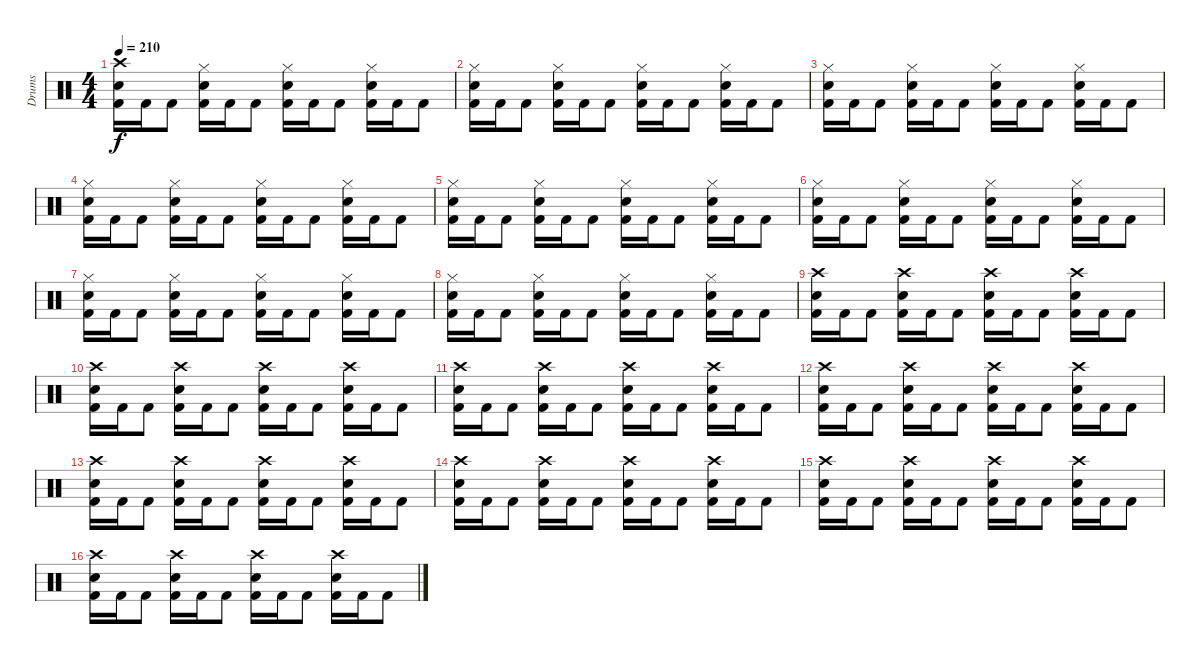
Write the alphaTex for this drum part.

\track ("Drums" "Drums") {instrument percussion}
\staff {score}
\articulation defaults
\ts (4 4)
\tempo 210
\clef neutral
\ks c
("Crash high (hit)" "Electric Snare (hit)" "Kick (hit) 2").16{dy f} "Kick (hit) 2".16 "Kick (hit) 2".8 ("Hi-Hat (closed)" "Electric Snare (hit)" "Kick (hit) 2").16 "Kick (hit) 2".16 "Kick (hit) 2".8 ("Hi-Hat (closed)" "Electric Snare (hit)" "Kick (hit) 2").16 "Kick (hit) 2".16 "Kick (hit) 2".8 ("Hi-Hat (closed)" "Electric Snare (hit)" "Kick (hit) 2").16 "Kick (hit) 2".16 "Kick (hit) 2".8 |
("Hi-Hat (closed)" "Electric Snare (hit)" "Kick (hit) 2").16 "Kick (hit) 2".16 "Kick (hit) 2".8 ("Hi-Hat (closed)" "Electric Snare (hit)" "Kick (hit) 2").16 "Kick (hit) 2".16 "Kick (hit) 2".8 ("Hi-Hat (closed)" "Electric Snare (hit)" "Kick (hit) 2").16 "Kick (hit) 2".16 "Kick (hit) 2".8 ("Hi-Hat (closed)" "Electric Snare (hit)" "Kick (hit) 2").16 "Kick (hit) 2".16 "Kick (hit) 2".8 |
("Hi-Hat (closed)" "Electric Snare (hit)" "Kick (hit) 2").16 "Kick (hit) 2".16 "Kick (hit) 2".8 ("Hi-Hat (closed)" "Electric Snare (hit)" "Kick (hit) 2").16 "Kick (hit) 2".16 "Kick (hit) 2".8 ("Hi-Hat (closed)" "Electric Snare (hit)" "Kick (hit) 2").16 "Kick (hit) 2".16 "Kick (hit) 2".8 ("Hi-Hat (closed)" "Electric Snare (hit)" "Kick (hit) 2").16 "Kick (hit) 2".16 "Kick (hit) 2".8 |
("Hi-Hat (closed)" "Electric Snare (hit)" "Kick (hit) 2").16 "Kick (hit) 2".16 "Kick (hit) 2".8 ("Hi-Hat (closed)" "Electric Snare (hit)" "Kick (hit) 2").16 "Kick (hit) 2".16 "Kick (hit) 2".8 ("Hi-Hat (closed)" "Electric Snare (hit)" "Kick (hit) 2").16 "Kick (hit) 2".16 "Kick (hit) 2".8 ("Hi-Hat (closed)" "Electric Snare (hit)" "Kick (hit) 2").16 "Kick (hit) 2".16 "Kick (hit) 2".8 |
("Hi-Hat (closed)" "Electric Snare (hit)" "Kick (hit) 2").16 "Kick (hit) 2".16 "Kick (hit) 2".8 ("Hi-Hat (closed)" "Electric Snare (hit)" "Kick (hit) 2").16 "Kick (hit) 2".16 "Kick (hit) 2".8 ("Hi-Hat (closed)" "Electric Snare (hit)" "Kick (hit) 2").16 "Kick (hit) 2".16 "Kick (hit) 2".8 ("Hi-Hat (closed)" "Electric Snare (hit)" "Kick (hit) 2").16 "Kick (hit) 2".16 "Kick (hit) 2".8 |
("Hi-Hat (closed)" "Electric Snare (hit)" "Kick (hit) 2").16 "Kick (hit) 2".16 "Kick (hit) 2".8 ("Hi-Hat (closed)" "Electric Snare (hit)" "Kick (hit) 2").16 "Kick (hit) 2".16 "Kick (hit) 2".8 ("Hi-Hat (closed)" "Electric Snare (hit)" "Kick (hit) 2").16 "Kick (hit) 2".16 "Kick (hit) 2".8 ("Hi-Hat (closed)" "Electric Snare (hit)" "Kick (hit) 2").16 "Kick (hit) 2".16 "Kick (hit) 2".8 |
("Hi-Hat (closed)" "Electric Snare (hit)" "Kick (hit) 2").16 "Kick (hit) 2".16 "Kick (hit) 2".8 ("Hi-Hat (closed)" "Electric Snare (hit)" "Kick (hit) 2").16 "Kick (hit) 2".16 "Kick (hit) 2".8 ("Hi-Hat (closed)" "Electric Snare (hit)" "Kick (hit) 2").16 "Kick (hit) 2".16 "Kick (hit) 2".8 ("Hi-Hat (closed)" "Electric Snare (hit)" "Kick (hit) 2").16 "Kick (hit) 2".16 "Kick (hit) 2".8 |
("Hi-Hat (closed)" "Electric Snare (hit)" "Kick (hit) 2").16 "Kick (hit) 2".16 "Kick (hit) 2".8 ("Hi-Hat (closed)" "Electric Snare (hit)" "Kick (hit) 2").16 "Kick (hit) 2".16 "Kick (hit) 2".8 ("Hi-Hat (closed)" "Electric Snare (hit)" "Kick (hit) 2").16 "Kick (hit) 2".16 "Kick (hit) 2".8 ("Hi-Hat (closed)" "Electric Snare (hit)" "Kick (hit) 2").16 "Kick (hit) 2".16 "Kick (hit) 2".8 |
("Crash high (hit)" "Electric Snare (hit)" "Kick (hit) 2").16 "Kick (hit) 2".16 "Kick (hit) 2".8 ("Crash high (hit)" "Electric Snare (hit)" "Kick (hit) 2").16 "Kick (hit) 2".16 "Kick (hit) 2".8 ("Crash high (hit)" "Electric Snare (hit)" "Kick (hit) 2").16 "Kick (hit) 2".16 "Kick (hit) 2".8 ("Crash high (hit)" "Electric Snare (hit)" "Kick (hit) 2").16 "Kick (hit) 2".16 "Kick (hit) 2".8 |
("Crash high (hit)" "Electric Snare (hit)" "Kick (hit) 2").16 "Kick (hit) 2".16 "Kick (hit) 2".8 ("Crash high (hit)" "Electric Snare (hit)" "Kick (hit) 2").16 "Kick (hit) 2".16 "Kick (hit) 2".8 ("Crash high (hit)" "Electric Snare (hit)" "Kick (hit) 2").16 "Kick (hit) 2".16 "Kick (hit) 2".8 ("Crash high (hit)" "Electric Snare (hit)" "Kick (hit) 2").16 "Kick (hit) 2".16 "Kick (hit) 2".8 |
("Crash high (hit)" "Electric Snare (hit)" "Kick (hit) 2").16 "Kick (hit) 2".16 "Kick (hit) 2".8 ("Crash high (hit)" "Electric Snare (hit)" "Kick (hit) 2").16 "Kick (hit) 2".16 "Kick (hit) 2".8 ("Crash high (hit)" "Electric Snare (hit)" "Kick (hit) 2").16 "Kick (hit) 2".16 "Kick (hit) 2".8 ("Crash high (hit)" "Electric Snare (hit)" "Kick (hit) 2").16 "Kick (hit) 2".16 "Kick (hit) 2".8 |
("Crash high (hit)" "Electric Snare (hit)" "Kick (hit) 2").16 "Kick (hit) 2".16 "Kick (hit) 2".8 ("Crash high (hit)" "Electric Snare (hit)" "Kick (hit) 2").16 "Kick (hit) 2".16 "Kick (hit) 2".8 ("Crash high (hit)" "Electric Snare (hit)" "Kick (hit) 2").16 "Kick (hit) 2".16 "Kick (hit) 2".8 ("Crash high (hit)" "Electric Snare (hit)" "Kick (hit) 2").16 "Kick (hit) 2".16 "Kick (hit) 2".8 |
("Crash high (hit)" "Electric Snare (hit)" "Kick (hit) 2").16 "Kick (hit) 2".16 "Kick (hit) 2".8 ("Crash high (hit)" "Electric Snare (hit)" "Kick (hit) 2").16 "Kick (hit) 2".16 "Kick (hit) 2".8 ("Crash high (hit)" "Electric Snare (hit)" "Kick (hit) 2").16 "Kick (hit) 2".16 "Kick (hit) 2".8 ("Crash high (hit)" "Electric Snare (hit)" "Kick (hit) 2").16 "Kick (hit) 2".16 "Kick (hit) 2".8 |
("Crash high (hit)" "Electric Snare (hit)" "Kick (hit) 2").16 "Kick (hit) 2".16 "Kick (hit) 2".8 ("Crash high (hit)" "Electric Snare (hit)" "Kick (hit) 2").16 "Kick (hit) 2".16 "Kick (hit) 2".8 ("Crash high (hit)" "Electric Snare (hit)" "Kick (hit) 2").16 "Kick (hit) 2".16 "Kick (hit) 2".8 ("Crash high (hit)" "Electric Snare (hit)" "Kick (hit) 2").16 "Kick (hit) 2".16 "Kick (hit) 2".8 |
("Crash high (hit)" "Electric Snare (hit)" "Kick (hit) 2").16 "Kick (hit) 2".16 "Kick (hit) 2".8 ("Crash high (hit)" "Electric Snare (hit)" "Kick (hit) 2").16 "Kick (hit) 2".16 "Kick (hit) 2".8 ("Crash high (hit)" "Electric Snare (hit)" "Kick (hit) 2").16 "Kick (hit) 2".16 "Kick (hit) 2".8 ("Crash high (hit)" "Electric Snare (hit)" "Kick (hit) 2").16 "Kick (hit) 2".16 "Kick (hit) 2".8 |
("Crash high (hit)" "Electric Snare (hit)" "Kick (hit) 2").16 "Kick (hit) 2".16 "Kick (hit) 2".8 ("Crash high (hit)" "Electric Snare (hit)" "Kick (hit) 2").16 "Kick (hit) 2".16 "Kick (hit) 2".8 ("Crash high (hit)" "Electric Snare (hit)" "Kick (hit) 2").16 "Kick (hit) 2".16 "Kick (hit) 2".8 ("Crash high (hit)" "Electric Snare (hit)" "Kick (hit) 2").16 "Kick (hit) 2".16 "Kick (hit) 2".8
